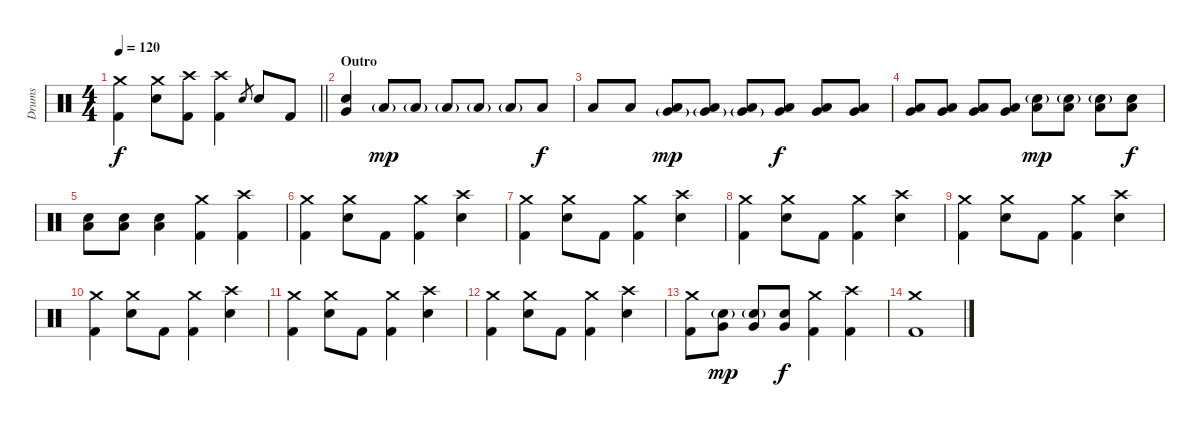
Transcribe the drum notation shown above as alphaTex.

\track ("Drums" "Drums") {instrument percussion}
\staff {score}
\articulation defaults
\ts (4 4)
\tempo 120
\clef neutral
\barLineRight lightlight
\ks c
("Crash medium (hit)" "Kick (hit) 2").4{dy f} ("Crash medium (hit)" "Electric Snare (hit)").8 ("Crash high (hit)" "Kick (hit) 2").8 ("Crash high (hit)" "Kick (hit) 2").4 "Electric Snare (hit)".8{gr} "Electric Snare (hit)".8 "Kick (hit) 2".8 |
\section ("" "Outro")
("Very Low Tom (hit)" "Electric Snare (hit)").4 "Low Floor Tom (hit)"{g}.8{dy mp} "Low Floor Tom (hit)"{g}.8 "Low Floor Tom (hit)"{g}.8 "Low Floor Tom (hit)"{g}.8 "Low Floor Tom (hit)"{g}.8 "Low Floor Tom (hit)".8{dy f} |
"Low Floor Tom (hit)".8 "Low Floor Tom (hit)".8 ("Very Low Tom (hit)"{g} "Low Floor Tom (hit)").8{dy mp} ("Very Low Tom (hit)"{g} "Low Floor Tom (hit)").8 ("Very Low Tom (hit)"{g} "Low Floor Tom (hit)").8 ("Very Low Tom (hit)" "Low Floor Tom (hit)").8{dy f} ("Very Low Tom (hit)" "Low Floor Tom (hit)").8 ("Very Low Tom (hit)" "Low Floor Tom (hit)").8 |
("Very Low Tom (hit)" "Low Floor Tom (hit)").8 ("Very Low Tom (hit)" "Low Floor Tom (hit)").8 ("Very Low Tom (hit)" "Low Tom (hit)").8 ("Very Low Tom (hit)" "Low Tom (hit)").8 ("Electric Snare (hit)"{g} "Low Tom (hit)").8{dy mp} ("Electric Snare (hit)"{g} "Low Tom (hit)").8 ("Electric Snare (hit)"{g} "Low Tom (hit)").8 ("Electric Snare (hit)" "Low Tom (hit)").8{dy f} |
("Electric Snare (hit)" "Low Tom (hit)").8 ("Electric Snare (hit)" "Low Tom (hit)").8 ("Electric Snare (hit)" "Low Tom (hit)").4 ("Crash medium (hit)" "Kick (hit) 2").4 ("Crash high (hit)" "Kick (hit) 2").4 |
("Crash medium (hit)" "Kick (hit) 2").4 ("Crash medium (hit)" "Electric Snare (hit)").8 "Kick (hit) 2".8 ("Crash medium (hit)" "Kick (hit) 2").4 ("Crash high (hit)" "Electric Snare (hit)").4 |
("Crash medium (hit)" "Kick (hit) 2").4 ("Crash medium (hit)" "Electric Snare (hit)").8 "Kick (hit) 2".8 ("Crash medium (hit)" "Kick (hit) 2").4 ("Crash high (hit)" "Electric Snare (hit)").4 |
("Crash medium (hit)" "Kick (hit) 2").4 ("Crash medium (hit)" "Electric Snare (hit)").8 "Kick (hit) 2".8 ("Crash medium (hit)" "Kick (hit) 2").4 ("Crash high (hit)" "Electric Snare (hit)").4 |
("Crash medium (hit)" "Kick (hit) 2").4 ("Crash medium (hit)" "Electric Snare (hit)").8 "Kick (hit) 2".8 ("Crash medium (hit)" "Kick (hit) 2").4 ("Crash high (hit)" "Electric Snare (hit)").4 |
("Crash medium (hit)" "Kick (hit) 2").4 ("Crash medium (hit)" "Electric Snare (hit)").8 "Kick (hit) 2".8 ("Crash medium (hit)" "Kick (hit) 2").4 ("Crash high (hit)" "Electric Snare (hit)").4 |
("Crash medium (hit)" "Kick (hit) 2").4 ("Crash medium (hit)" "Electric Snare (hit)").8 "Kick (hit) 2".8 ("Crash medium (hit)" "Kick (hit) 2").4 ("Crash high (hit)" "Electric Snare (hit)").4 |
("Crash medium (hit)" "Kick (hit) 2").4 ("Crash medium (hit)" "Electric Snare (hit)").8 "Kick (hit) 2".8 ("Crash medium (hit)" "Kick (hit) 2").4 ("Crash high (hit)" "Electric Snare (hit)").4 |
("Crash medium (hit)" "Kick (hit) 2").8 ("Electric Snare (hit)"{g} "Very Low Tom (hit)").8{dy mp} ("Electric Snare (hit)"{g} "Very Low Tom (hit)").8 ("Electric Snare (hit)" "Very Low Tom (hit)").8{dy f} ("Crash medium (hit)" "Kick (hit) 2").4 ("Crash high (hit)" "Kick (hit) 2").4 |
("Crash medium (hit)" "Kick (hit) 2").1
